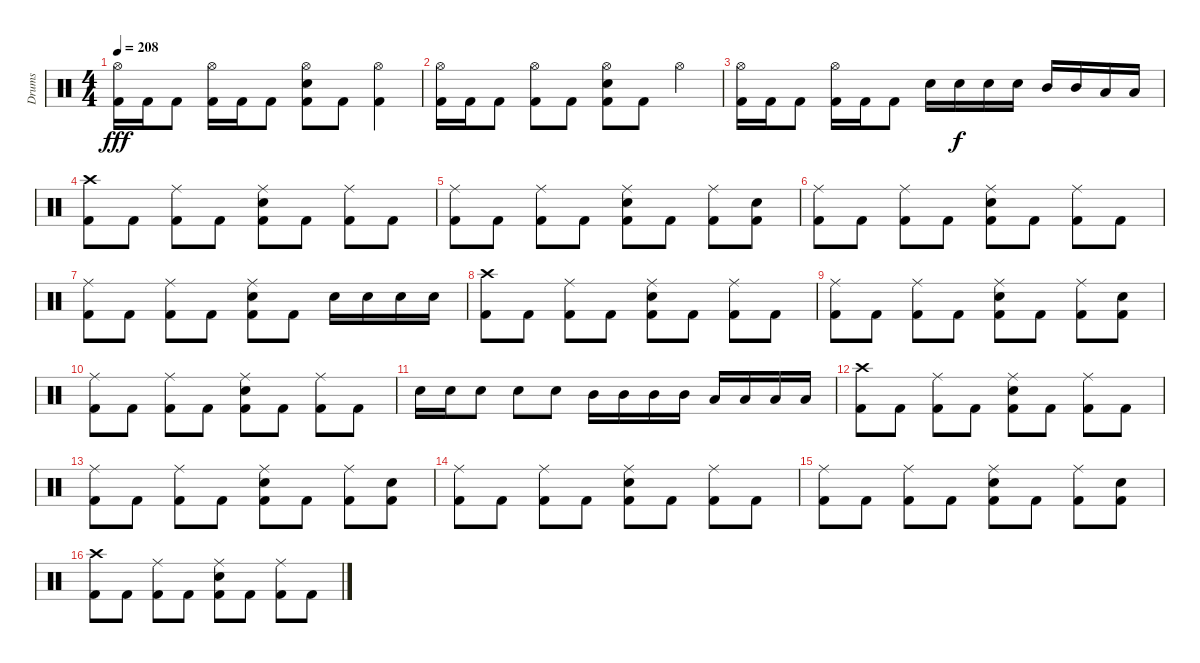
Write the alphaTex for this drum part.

\track ("Drums" "Drums") {instrument percussion}
\staff {score}
\articulation defaults
\ts (4 4)
\tempo 208
\clef neutral
\ks c
("Hi-Hat (open)" "Kick (hit) 2").16{dy fff} "Kick (hit) 2".16 "Kick (hit) 2".8 ("Hi-Hat (open)" "Kick (hit) 2").16 "Kick (hit) 2".16 "Kick (hit) 2".8 ("Hi-Hat (open)" "Snare (hit) 2" "Kick (hit) 2").8 "Kick (hit) 2".8 ("Hi-Hat (open)" "Kick (hit) 2").4 |
("Hi-Hat (open)" "Kick (hit) 2").16 "Kick (hit) 2".16 "Kick (hit) 2".8 ("Hi-Hat (open)" "Kick (hit) 2").8 "Kick (hit) 2".8 ("Hi-Hat (open)" "Snare (hit) 2" "Kick (hit) 2").8 "Kick (hit) 2".8 "Hi-Hat (open)".4 |
("Hi-Hat (open)" "Kick (hit) 2").16 "Kick (hit) 2".16 "Kick (hit) 2".8 ("Hi-Hat (open)" "Kick (hit) 2").16 "Kick (hit) 2".16 "Kick (hit) 2".8 "Snare (hit) 2".16 "Snare (hit) 2".16{dy f} "Snare (hit) 2".16 "Snare (hit) 2".16 "Mid Tom (hit)".16 "Mid Tom (hit)".16 "Low Tom (hit)".16 "Low Tom (hit)".16 |
("Crash high (hit)" "Kick (hit) 2").8 "Kick (hit) 2".8 ("Ride (middle)" "Kick (hit) 2").8 "Kick (hit) 2".8 ("Ride (middle)" "Snare (hit) 2" "Kick (hit) 2").8 "Kick (hit) 2".8 ("Ride (middle)" "Kick (hit) 2").8 "Kick (hit) 2".8 |
("Ride (middle)" "Kick (hit) 2").8 "Kick (hit) 2".8 ("Ride (middle)" "Kick (hit) 2").8 "Kick (hit) 2".8 ("Ride (middle)" "Snare (hit) 2" "Kick (hit) 2").8 "Kick (hit) 2".8 ("Ride (middle)" "Kick (hit) 2").8 ("Snare (hit) 2" "Kick (hit) 2").8 |
("Ride (middle)" "Kick (hit) 2").8 "Kick (hit) 2".8 ("Ride (middle)" "Kick (hit) 2").8 "Kick (hit) 2".8 ("Ride (middle)" "Snare (hit) 2" "Kick (hit) 2").8 "Kick (hit) 2".8 ("Ride (middle)" "Kick (hit) 2").8 "Kick (hit) 2".8 |
("Ride (middle)" "Kick (hit) 2").8 "Kick (hit) 2".8 ("Ride (middle)" "Kick (hit) 2").8 "Kick (hit) 2".8 ("Ride (middle)" "Snare (hit) 2" "Kick (hit) 2").8 "Kick (hit) 2".8 "Snare (hit) 2".16 "Snare (hit) 2".16 "Snare (hit) 2".16 "Snare (hit) 2".16 |
("Crash high (hit)" "Kick (hit) 2").8 "Kick (hit) 2".8 ("Ride (middle)" "Kick (hit) 2").8 "Kick (hit) 2".8 ("Ride (middle)" "Snare (hit) 2" "Kick (hit) 2").8 "Kick (hit) 2".8 ("Ride (middle)" "Kick (hit) 2").8 "Kick (hit) 2".8 |
("Ride (middle)" "Kick (hit) 2").8 "Kick (hit) 2".8 ("Ride (middle)" "Kick (hit) 2").8 "Kick (hit) 2".8 ("Ride (middle)" "Snare (hit) 2" "Kick (hit) 2").8 "Kick (hit) 2".8 ("Ride (middle)" "Kick (hit) 2").8 ("Snare (hit) 2" "Kick (hit) 2").8 |
("Ride (middle)" "Kick (hit) 2").8 "Kick (hit) 2".8 ("Ride (middle)" "Kick (hit) 2").8 "Kick (hit) 2".8 ("Ride (middle)" "Snare (hit) 2" "Kick (hit) 2").8 "Kick (hit) 2".8 ("Ride (middle)" "Kick (hit) 2").8 "Kick (hit) 2".8 |
"Snare (hit) 2".16 "Snare (hit) 2".16 "Snare (hit) 2".8 "Snare (hit) 2".8 "Snare (hit) 2".8 "Mid Tom (hit)".16 "Mid Tom (hit)".16 "Mid Tom (hit)".16 "Mid Tom (hit)".16 "Low Tom (hit)".16 "Low Tom (hit)".16 "Low Tom (hit)".16 "Low Tom (hit)".16 |
("Crash high (hit)" "Kick (hit) 2").8 "Kick (hit) 2".8 ("Ride (middle)" "Kick (hit) 2").8 "Kick (hit) 2".8 ("Ride (middle)" "Snare (hit) 2" "Kick (hit) 2").8 "Kick (hit) 2".8 ("Ride (middle)" "Kick (hit) 2").8 "Kick (hit) 2".8 |
("Ride (middle)" "Kick (hit) 2").8 "Kick (hit) 2".8 ("Ride (middle)" "Kick (hit) 2").8 "Kick (hit) 2".8 ("Ride (middle)" "Snare (hit) 2" "Kick (hit) 2").8 "Kick (hit) 2".8 ("Ride (middle)" "Kick (hit) 2").8 ("Snare (hit) 2" "Kick (hit) 2").8 |
("Ride (middle)" "Kick (hit) 2").8 "Kick (hit) 2".8 ("Ride (middle)" "Kick (hit) 2").8 "Kick (hit) 2".8 ("Ride (middle)" "Snare (hit) 2" "Kick (hit) 2").8 "Kick (hit) 2".8 ("Ride (middle)" "Kick (hit) 2").8 "Kick (hit) 2".8 |
("Ride (middle)" "Kick (hit) 2").8 "Kick (hit) 2".8 ("Ride (middle)" "Kick (hit) 2").8 "Kick (hit) 2".8 ("Ride (middle)" "Snare (hit) 2" "Kick (hit) 2").8 "Kick (hit) 2".8 ("Ride (middle)" "Kick (hit) 2").8 ("Snare (hit) 2" "Kick (hit) 2").8 |
("Crash high (hit)" "Kick (hit) 2").8 "Kick (hit) 2".8 ("Ride (middle)" "Kick (hit) 2").8 "Kick (hit) 2".8 ("Ride (middle)" "Snare (hit) 2" "Kick (hit) 2").8 "Kick (hit) 2".8 ("Ride (middle)" "Kick (hit) 2").8 "Kick (hit) 2".8
